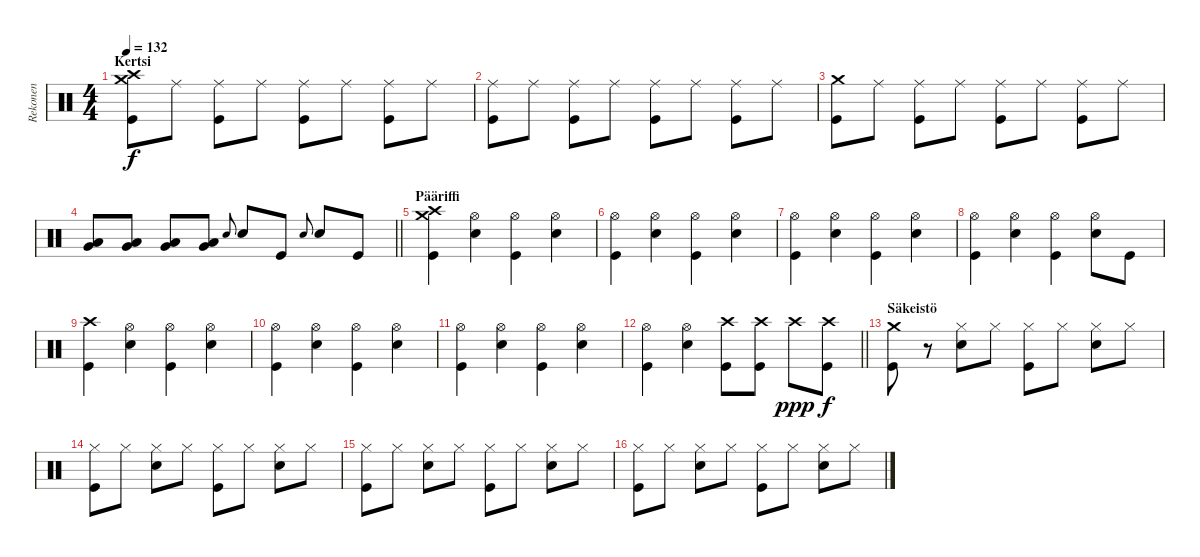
\track ("Rekonen" "Rekonen") {instrument percussion}
\staff {score}
\articulation defaults
\ts (4 4)
\section ("" "Kertsi")
\tempo 132
\clef neutral
\ks c
("Kick (hit)" "Crash high (hit)" "Crash medium (hit)").8{dy f} "Ride (middle)".8 ("Kick (hit)" "Ride (middle)").8 "Ride (middle)".8 ("Kick (hit)" "Ride (middle)").8 "Ride (middle)".8 ("Kick (hit)" "Ride (middle)").8 "Ride (middle)".8 |
("Kick (hit)" "Ride (middle)").8 "Ride (middle)".8 ("Kick (hit)" "Ride (middle)").8 "Ride (middle)".8 ("Kick (hit)" "Ride (middle)").8 "Ride (middle)".8 ("Kick (hit)" "Ride (middle)").8 "Ride (middle)".8 |
("Kick (hit)" "Crash medium (hit)").8 "Ride (middle)".8 ("Kick (hit)" "Ride (middle)").8 "Ride (middle)".8 ("Kick (hit)" "Ride (middle)").8 "Ride (middle)".8 ("Kick (hit)" "Ride (middle)").8 "Ride (middle)".8 |
\barLineRight lightlight
("Very Low Tom (hit)" "Low Tom (hit)").8 ("Very Low Tom (hit)" "Low Tom (hit)").8 ("Very Low Tom (hit)" "Low Tom (hit)").8 ("Very Low Tom (hit)" "Low Tom (hit)").8 "Electric Snare (hit)".8{gr onbeat} "Electric Snare (hit)".8 "Kick (hit)".8 "Electric Snare (hit)".8{gr onbeat} "Electric Snare (hit)".8 "Kick (hit)".8 |
\section ("" "Pääriffi")
("Kick (hit)" "Crash high (hit)" "Crash medium (hit)").4 ("Electric Snare (hit)" "Hi-Hat (open)").4 ("Kick (hit)" "Hi-Hat (open)").4 ("Electric Snare (hit)" "Hi-Hat (open)").4 |
("Kick (hit)" "Hi-Hat (open)").4 ("Electric Snare (hit)" "Hi-Hat (open)").4 ("Kick (hit)" "Hi-Hat (open)").4 ("Electric Snare (hit)" "Hi-Hat (open)").4 |
("Kick (hit)" "Hi-Hat (open)").4 ("Electric Snare (hit)" "Hi-Hat (open)").4 ("Kick (hit)" "Hi-Hat (open)").4 ("Electric Snare (hit)" "Hi-Hat (open)").4 |
("Kick (hit)" "Hi-Hat (open)").4 ("Electric Snare (hit)" "Hi-Hat (open)").4 ("Kick (hit)" "Hi-Hat (open)").4 ("Electric Snare (hit)" "Hi-Hat (open)").8 "Kick (hit)".8 |
("Kick (hit)" "Crash high (hit)").4 ("Electric Snare (hit)" "Hi-Hat (open)").4 ("Kick (hit)" "Hi-Hat (open)").4 ("Electric Snare (hit)" "Hi-Hat (open)").4 |
("Kick (hit)" "Hi-Hat (open)").4 ("Electric Snare (hit)" "Hi-Hat (open)").4 ("Kick (hit)" "Hi-Hat (open)").4 ("Electric Snare (hit)" "Hi-Hat (open)").4 |
("Kick (hit)" "Hi-Hat (open)").4 ("Electric Snare (hit)" "Hi-Hat (open)").4 ("Kick (hit)" "Hi-Hat (open)").4 ("Electric Snare (hit)" "Hi-Hat (open)").4 |
\barLineRight lightlight
("Kick (hit)" "Hi-Hat (open)").4 ("Electric Snare (hit)" "Hi-Hat (open)").4 ("Kick (hit)" "Crash high (hit)").8 ("Kick (hit)" "Crash high (hit)").8 "Crash high (hit)".8{dy ppp} ("Kick (hit)" "Crash high (hit)").8{dy f} |
\section ("" "Säkeistö")
("Kick (hit)" "Crash medium (hit)").8 r.8 ("Electric Snare (hit)" "Hi-Hat (closed)").8 "Hi-Hat (closed)".8 ("Kick (hit)" "Hi-Hat (closed)").8 "Hi-Hat (closed)".8 ("Electric Snare (hit)" "Hi-Hat (closed)").8 "Hi-Hat (closed)".8 |
("Kick (hit)" "Hi-Hat (closed)").8 "Hi-Hat (closed)".8 ("Electric Snare (hit)" "Hi-Hat (closed)").8 "Hi-Hat (closed)".8 ("Kick (hit)" "Hi-Hat (closed)").8 "Hi-Hat (closed)".8 ("Electric Snare (hit)" "Hi-Hat (closed)").8 "Hi-Hat (closed)".8 |
("Kick (hit)" "Hi-Hat (closed)").8 "Hi-Hat (closed)".8 ("Electric Snare (hit)" "Hi-Hat (closed)").8 "Hi-Hat (closed)".8 ("Kick (hit)" "Hi-Hat (closed)").8 "Hi-Hat (closed)".8 ("Electric Snare (hit)" "Hi-Hat (closed)").8 "Hi-Hat (closed)".8 |
("Kick (hit)" "Hi-Hat (closed)").8 "Hi-Hat (closed)".8 ("Electric Snare (hit)" "Hi-Hat (closed)").8 "Hi-Hat (closed)".8 ("Kick (hit)" "Hi-Hat (closed)").8 "Hi-Hat (closed)".8 ("Electric Snare (hit)" "Hi-Hat (closed)").8 "Hi-Hat (closed)".8
